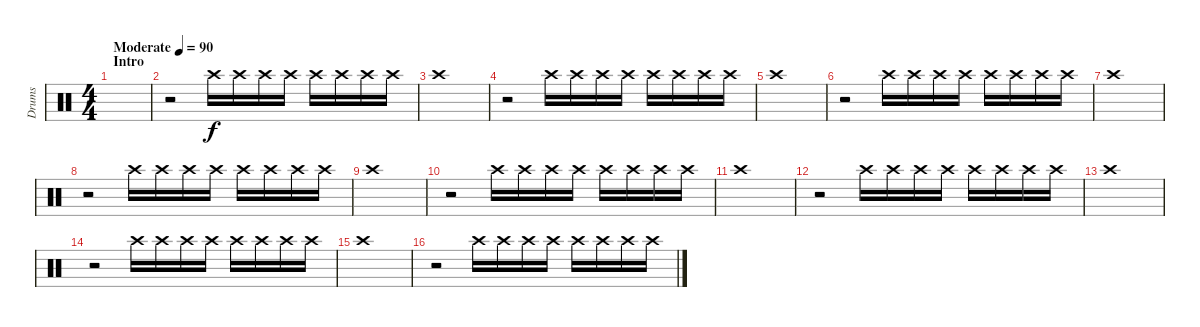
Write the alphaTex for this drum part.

\track ("Drums" "Drums") {instrument percussion}
\staff {score}
\articulation defaults
\ts (4 4)
\section ("" "Intro")
\tempo (90 "Moderate")
\clef neutral
\ks c
|
r.2 "Crash high (hit)".16 "Crash high (hit)".16 "Crash high (hit)".16 "Crash high (hit)".16 "Crash high (hit)".16 "Crash high (hit)".16 "Crash high (hit)".16 "Crash high (hit)".16 |
"Crash high (hit)".1 |
r.2 "Crash high (hit)".16 "Crash high (hit)".16 "Crash high (hit)".16 "Crash high (hit)".16 "Crash high (hit)".16 "Crash high (hit)".16 "Crash high (hit)".16 "Crash high (hit)".16 |
"Crash high (hit)".1 |
r.2 "Crash high (hit)".16 "Crash high (hit)".16 "Crash high (hit)".16 "Crash high (hit)".16 "Crash high (hit)".16 "Crash high (hit)".16 "Crash high (hit)".16 "Crash high (hit)".16 |
"Crash high (hit)".1 |
r.2 "Crash high (hit)".16 "Crash high (hit)".16 "Crash high (hit)".16 "Crash high (hit)".16 "Crash high (hit)".16 "Crash high (hit)".16 "Crash high (hit)".16 "Crash high (hit)".16 |
"Crash high (hit)".1 |
r.2 "Crash high (hit)".16 "Crash high (hit)".16 "Crash high (hit)".16 "Crash high (hit)".16 "Crash high (hit)".16 "Crash high (hit)".16 "Crash high (hit)".16 "Crash high (hit)".16 |
"Crash high (hit)".1 |
r.2 "Crash high (hit)".16 "Crash high (hit)".16 "Crash high (hit)".16 "Crash high (hit)".16 "Crash high (hit)".16 "Crash high (hit)".16 "Crash high (hit)".16 "Crash high (hit)".16 |
"Crash high (hit)".1 |
r.2 "Crash high (hit)".16 "Crash high (hit)".16 "Crash high (hit)".16 "Crash high (hit)".16 "Crash high (hit)".16 "Crash high (hit)".16 "Crash high (hit)".16 "Crash high (hit)".16 |
"Crash high (hit)".1 |
r.2 "Crash high (hit)".16 "Crash high (hit)".16 "Crash high (hit)".16 "Crash high (hit)".16 "Crash high (hit)".16 "Crash high (hit)".16 "Crash high (hit)".16 "Crash high (hit)".16
